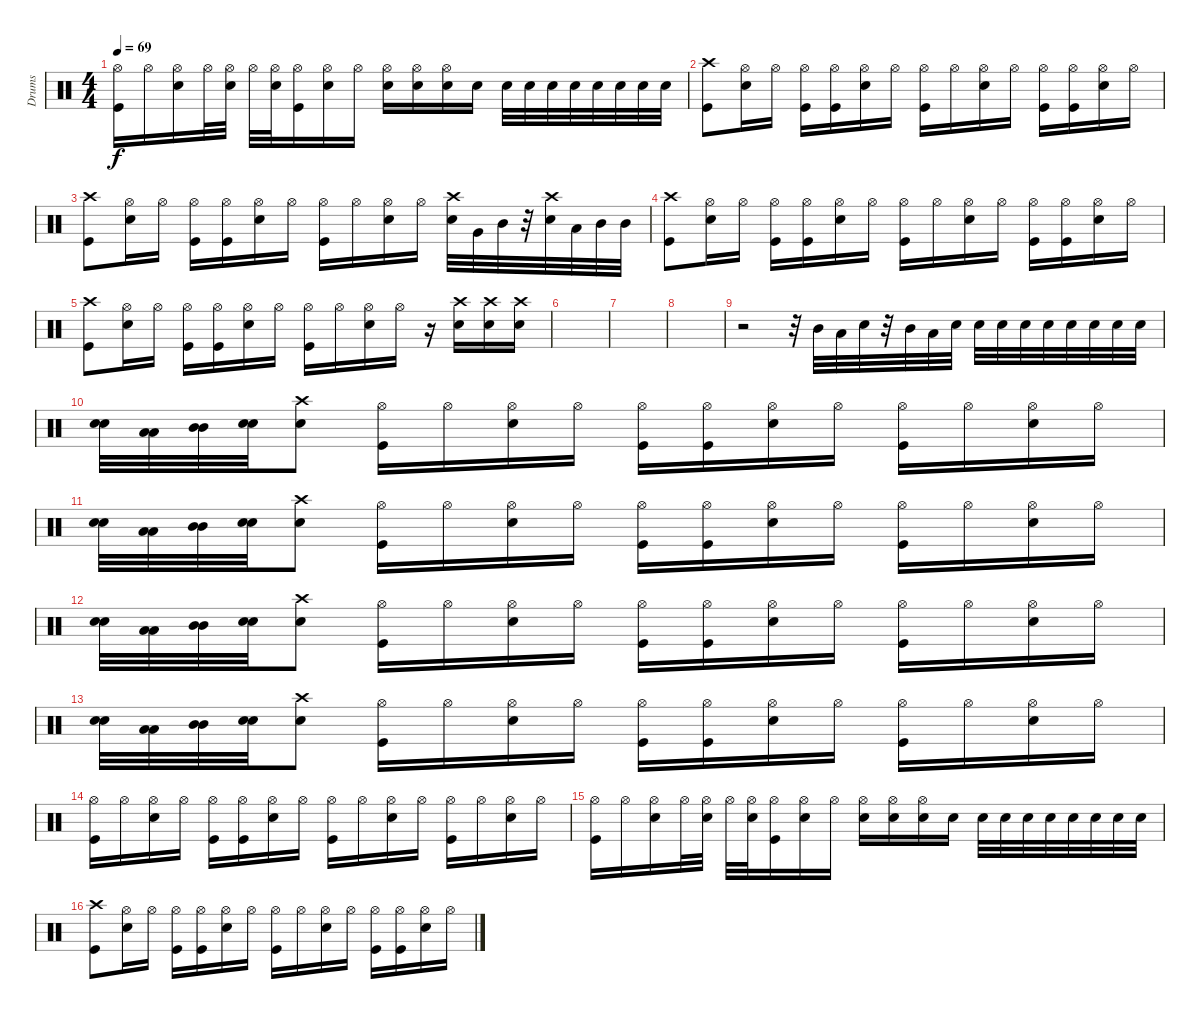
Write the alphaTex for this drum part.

\track ("Drums" "Drums") {instrument percussion}
\staff {score}
\articulation defaults
\ts (4 4)
\tempo 69
\clef neutral
\ks c
("Hi-Hat (open)" "Kick (hit)").16{dy f} "Hi-Hat (open)".16 ("Hi-Hat (open)" "Snare (hit) 2").16 "Hi-Hat (open)".32 ("Hi-Hat (open)" "Snare (hit) 2").32 "Hi-Hat (open)".32 ("Hi-Hat (open)" "Snare (hit) 2").32 ("Hi-Hat (open)" "Kick (hit)").16 ("Hi-Hat (open)" "Snare (hit) 2").16 "Hi-Hat (open)".16 ("Hi-Hat (open)" "Snare (hit) 2").16 ("Hi-Hat (open)" "Snare (hit) 2").16 ("Hi-Hat (open)" "Snare (hit) 2").16 "Snare (hit) 2".16 "Snare (hit) 2".32 "Snare (hit) 2".32 "Snare (hit) 2".32 "Snare (hit) 2".32 "Snare (hit) 2".32 "Snare (hit) 2".32 "Snare (hit) 2".32 "Snare (hit) 2".32 |
("Crash high (hit)" "Kick (hit)").8 ("Hi-Hat (open)" "Snare (hit) 2").16 "Hi-Hat (open)".16 ("Hi-Hat (open)" "Kick (hit)").16 ("Hi-Hat (open)" "Kick (hit)").16 ("Hi-Hat (open)" "Snare (hit) 2").16 "Hi-Hat (open)".16 ("Hi-Hat (open)" "Kick (hit)").16 "Hi-Hat (open)".16 ("Hi-Hat (open)" "Snare (hit) 2").16 "Hi-Hat (open)".16 ("Hi-Hat (open)" "Kick (hit)").16 ("Hi-Hat (open)" "Kick (hit)").16 ("Hi-Hat (open)" "Snare (hit) 2").16 "Hi-Hat (open)".16 |
("Crash high (hit)" "Kick (hit)").8 ("Hi-Hat (open)" "Snare (hit) 2").16 "Hi-Hat (open)".16 ("Hi-Hat (open)" "Kick (hit)").16 ("Hi-Hat (open)" "Kick (hit)").16 ("Hi-Hat (open)" "Snare (hit) 2").16 "Hi-Hat (open)".16 ("Hi-Hat (open)" "Kick (hit)").16 "Hi-Hat (open)".16 ("Hi-Hat (open)" "Snare (hit) 2").16 "Hi-Hat (open)".16 ("Crash high (hit)" "Snare (hit) 2").32 "Very Low Tom (hit)".32 "Mid Tom (hit)".32 r.32 ("Crash high (hit)" "Snare (hit) 2").32 "Low Tom (hit)".32 "Mid Tom (hit)".32 "Mid Tom (hit)".32 |
("Crash high (hit)" "Kick (hit)").8 ("Hi-Hat (open)" "Snare (hit) 2").16 "Hi-Hat (open)".16 ("Hi-Hat (open)" "Kick (hit)").16 ("Hi-Hat (open)" "Kick (hit)").16 ("Hi-Hat (open)" "Snare (hit) 2").16 "Hi-Hat (open)".16 ("Hi-Hat (open)" "Kick (hit)").16 "Hi-Hat (open)".16 ("Hi-Hat (open)" "Snare (hit) 2").16 "Hi-Hat (open)".16 ("Hi-Hat (open)" "Kick (hit)").16 ("Hi-Hat (open)" "Kick (hit)").16 ("Hi-Hat (open)" "Snare (hit) 2").16 "Hi-Hat (open)".16 |
("Crash high (hit)" "Kick (hit)").8 ("Hi-Hat (open)" "Snare (hit) 2").16 "Hi-Hat (open)".16 ("Hi-Hat (open)" "Kick (hit)").16 ("Hi-Hat (open)" "Kick (hit)").16 ("Hi-Hat (open)" "Snare (hit) 2").16 "Hi-Hat (open)".16 ("Hi-Hat (open)" "Kick (hit)").16 "Hi-Hat (open)".16 ("Hi-Hat (open)" "Snare (hit) 2").16 "Hi-Hat (open)".16 r.16 ("Crash high (hit)" "Snare (hit) 2").16 ("Crash high (hit)" "Snare (hit) 2").16 ("Crash high (hit)" "Snare (hit) 2").16 |
|
|
|
r.2 r.32 "Mid Tom (hit)".32 "Low Tom (hit)".32 "Snare (hit) 2".32 r.32 "Mid Tom (hit)".32 "Low Tom (hit)".32 "Snare (hit) 2".32 "Snare (hit) 2".32 "Snare (hit) 2".32 "Snare (hit) 2".32 "Snare (hit) 2".32 "Snare (hit) 2".32 "Snare (hit) 2".32 "Snare (hit) 2".32 "Snare (hit) 2".32 |
("Snare (hit) 2" "Snare (hit) 2").32 ("Low Tom (hit)" "Low Tom (hit)").32 ("Mid Tom (hit)" "Mid Tom (hit)").32 ("Snare (hit) 2" "Snare (hit) 2").32 ("Crash high (hit)" "Snare (hit) 2").8 ("Hi-Hat (open)" "Kick (hit)").16 "Hi-Hat (open)".16 ("Hi-Hat (open)" "Snare (hit) 2").16 "Hi-Hat (open)".16 ("Hi-Hat (open)" "Kick (hit)").16 ("Hi-Hat (open)" "Kick (hit)").16 ("Hi-Hat (open)" "Snare (hit) 2").16 "Hi-Hat (open)".16 ("Hi-Hat (open)" "Kick (hit)").16 "Hi-Hat (open)".16 ("Hi-Hat (open)" "Snare (hit) 2").16 "Hi-Hat (open)".16 |
("Snare (hit) 2" "Snare (hit) 2").32 ("Low Tom (hit)" "Low Tom (hit)").32 ("Mid Tom (hit)" "Mid Tom (hit)").32 ("Snare (hit) 2" "Snare (hit) 2").32 ("Crash high (hit)" "Snare (hit) 2").8 ("Hi-Hat (open)" "Kick (hit)").16 "Hi-Hat (open)".16 ("Hi-Hat (open)" "Snare (hit) 2").16 "Hi-Hat (open)".16 ("Hi-Hat (open)" "Kick (hit)").16 ("Hi-Hat (open)" "Kick (hit)").16 ("Hi-Hat (open)" "Snare (hit) 2").16 "Hi-Hat (open)".16 ("Hi-Hat (open)" "Kick (hit)").16 "Hi-Hat (open)".16 ("Hi-Hat (open)" "Snare (hit) 2").16 "Hi-Hat (open)".16 |
("Snare (hit) 2" "Snare (hit) 2").32 ("Low Tom (hit)" "Low Tom (hit)").32 ("Mid Tom (hit)" "Mid Tom (hit)").32 ("Snare (hit) 2" "Snare (hit) 2").32 ("Crash high (hit)" "Snare (hit) 2").8 ("Hi-Hat (open)" "Kick (hit)").16 "Hi-Hat (open)".16 ("Hi-Hat (open)" "Snare (hit) 2").16 "Hi-Hat (open)".16 ("Hi-Hat (open)" "Kick (hit)").16 ("Hi-Hat (open)" "Kick (hit)").16 ("Hi-Hat (open)" "Snare (hit) 2").16 "Hi-Hat (open)".16 ("Hi-Hat (open)" "Kick (hit)").16 "Hi-Hat (open)".16 ("Hi-Hat (open)" "Snare (hit) 2").16 "Hi-Hat (open)".16 |
("Snare (hit) 2" "Snare (hit) 2").32 ("Low Tom (hit)" "Low Tom (hit)").32 ("Mid Tom (hit)" "Mid Tom (hit)").32 ("Snare (hit) 2" "Snare (hit) 2").32 ("Crash high (hit)" "Snare (hit) 2").8 ("Hi-Hat (open)" "Kick (hit)").16 "Hi-Hat (open)".16 ("Hi-Hat (open)" "Snare (hit) 2").16 "Hi-Hat (open)".16 ("Hi-Hat (open)" "Kick (hit)").16 ("Hi-Hat (open)" "Kick (hit)").16 ("Hi-Hat (open)" "Snare (hit) 2").16 "Hi-Hat (open)".16 ("Hi-Hat (open)" "Kick (hit)").16 "Hi-Hat (open)".16 ("Hi-Hat (open)" "Snare (hit) 2").16 "Hi-Hat (open)".16 |
("Hi-Hat (open)" "Kick (hit)").16 "Hi-Hat (open)".16 ("Hi-Hat (open)" "Snare (hit) 2").16 "Hi-Hat (open)".16 ("Hi-Hat (open)" "Kick (hit)").16 ("Hi-Hat (open)" "Kick (hit)").16 ("Hi-Hat (open)" "Snare (hit) 2").16 "Hi-Hat (open)".16 ("Hi-Hat (open)" "Kick (hit)").16 "Hi-Hat (open)".16 ("Hi-Hat (open)" "Snare (hit) 2").16 "Hi-Hat (open)".16 ("Hi-Hat (open)" "Kick (hit)").16 "Hi-Hat (open)".16 ("Hi-Hat (open)" "Snare (hit) 2").16 "Hi-Hat (open)".16 |
("Hi-Hat (open)" "Kick (hit)").16 "Hi-Hat (open)".16 ("Hi-Hat (open)" "Snare (hit) 2").16 "Hi-Hat (open)".32 ("Hi-Hat (open)" "Snare (hit) 2").32 "Hi-Hat (open)".32 ("Hi-Hat (open)" "Snare (hit) 2").32 ("Hi-Hat (open)" "Kick (hit)").16 ("Hi-Hat (open)" "Snare (hit) 2").16 "Hi-Hat (open)".16 ("Hi-Hat (open)" "Snare (hit) 2").16 ("Hi-Hat (open)" "Snare (hit) 2").16 ("Hi-Hat (open)" "Snare (hit) 2").16 "Snare (hit) 2".16 "Snare (hit) 2".32 "Snare (hit) 2".32 "Snare (hit) 2".32 "Snare (hit) 2".32 "Snare (hit) 2".32 "Snare (hit) 2".32 "Snare (hit) 2".32 "Snare (hit) 2".32 |
("Crash high (hit)" "Kick (hit)").8 ("Hi-Hat (open)" "Snare (hit) 2").16 "Hi-Hat (open)".16 ("Hi-Hat (open)" "Kick (hit)").16 ("Hi-Hat (open)" "Kick (hit)").16 ("Hi-Hat (open)" "Snare (hit) 2").16 "Hi-Hat (open)".16 ("Hi-Hat (open)" "Kick (hit)").16 "Hi-Hat (open)".16 ("Hi-Hat (open)" "Snare (hit) 2").16 "Hi-Hat (open)".16 ("Hi-Hat (open)" "Kick (hit)").16 ("Hi-Hat (open)" "Kick (hit)").16 ("Hi-Hat (open)" "Snare (hit) 2").16 "Hi-Hat (open)".16
